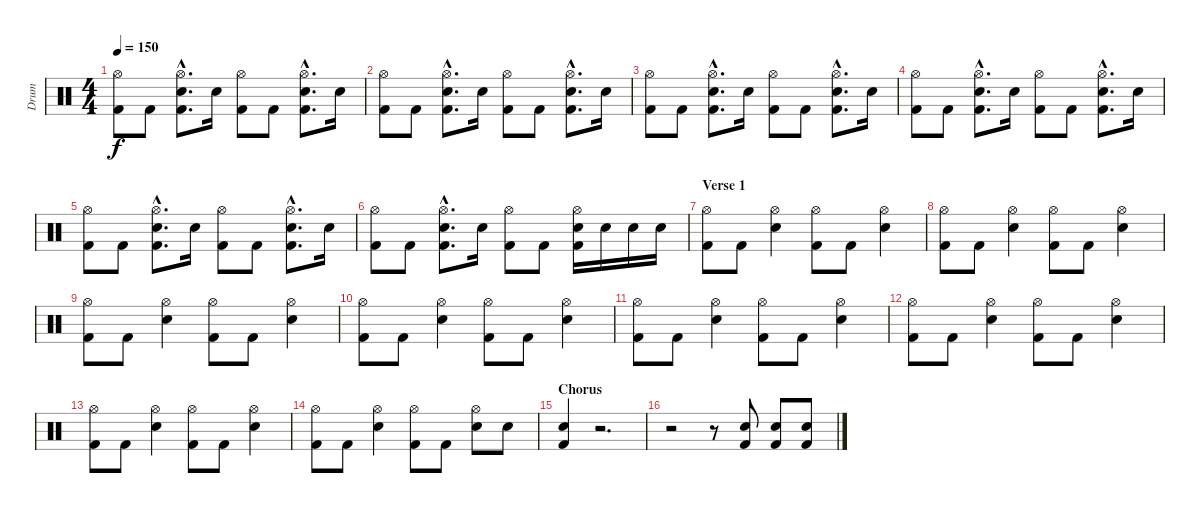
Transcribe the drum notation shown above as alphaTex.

\track ("Drum" "Drum") {instrument percussion}
\staff {score}
\articulation defaults
\ts (4 4)
\tempo 150
\clef neutral
\ks c
("Hi-Hat (open)" "Kick (hit) 2").8{dy f} "Kick (hit) 2".8 ("Hi-Hat (open)"{hac} "Snare (hit) 2"{hac} "Kick (hit) 2"{hac}).8{d} "Snare (hit) 2".16 ("Hi-Hat (open)" "Kick (hit) 2").8 "Kick (hit) 2".8 ("Hi-Hat (open)"{hac} "Snare (hit) 2"{hac} "Kick (hit) 2"{hac}).8{d} "Snare (hit) 2".16 |
("Hi-Hat (open)" "Kick (hit) 2").8 "Kick (hit) 2".8 ("Hi-Hat (open)"{hac} "Snare (hit) 2"{hac} "Kick (hit) 2"{hac}).8{d} "Snare (hit) 2".16 ("Hi-Hat (open)" "Kick (hit) 2").8 "Kick (hit) 2".8 ("Hi-Hat (open)"{hac} "Snare (hit) 2"{hac} "Kick (hit) 2"{hac}).8{d} "Snare (hit) 2".16 |
("Hi-Hat (open)" "Kick (hit) 2").8 "Kick (hit) 2".8 ("Hi-Hat (open)"{hac} "Snare (hit) 2"{hac} "Kick (hit) 2"{hac}).8{d} "Snare (hit) 2".16 ("Hi-Hat (open)" "Kick (hit) 2").8 "Kick (hit) 2".8 ("Hi-Hat (open)"{hac} "Snare (hit) 2"{hac} "Kick (hit) 2"{hac}).8{d} "Snare (hit) 2".16 |
("Hi-Hat (open)" "Kick (hit) 2").8 "Kick (hit) 2".8 ("Hi-Hat (open)"{hac} "Snare (hit) 2"{hac} "Kick (hit) 2"{hac}).8{d} "Snare (hit) 2".16 ("Hi-Hat (open)" "Kick (hit) 2").8 "Kick (hit) 2".8 ("Hi-Hat (open)"{hac} "Snare (hit) 2"{hac} "Kick (hit) 2"{hac}).8{d} "Snare (hit) 2".16 |
("Hi-Hat (open)" "Kick (hit) 2").8 "Kick (hit) 2".8 ("Hi-Hat (open)"{hac} "Snare (hit) 2"{hac} "Kick (hit) 2"{hac}).8{d} "Snare (hit) 2".16 ("Hi-Hat (open)" "Kick (hit) 2").8 "Kick (hit) 2".8 ("Hi-Hat (open)"{hac} "Snare (hit) 2"{hac} "Kick (hit) 2"{hac}).8{d} "Snare (hit) 2".16 |
("Hi-Hat (open)" "Kick (hit) 2").8 "Kick (hit) 2".8 ("Hi-Hat (open)"{hac} "Snare (hit) 2"{hac} "Kick (hit) 2"{hac}).8{d} "Snare (hit) 2".16 ("Hi-Hat (open)" "Kick (hit) 2").8 "Kick (hit) 2".8 ("Hi-Hat (open)" "Snare (hit) 2" "Kick (hit) 2").16 "Snare (hit) 2".16 "Snare (hit) 2".16 "Snare (hit) 2".16 |
\section ("" "Verse 1")
("Hi-Hat (open)" "Kick (hit) 2").8 "Kick (hit) 2".8 ("Hi-Hat (open)" "Snare (hit) 2").4 ("Hi-Hat (open)" "Kick (hit) 2").8 "Kick (hit) 2".8 ("Hi-Hat (open)" "Snare (hit) 2").4 |
("Hi-Hat (open)" "Kick (hit) 2").8 "Kick (hit) 2".8 ("Hi-Hat (open)" "Snare (hit) 2").4 ("Hi-Hat (open)" "Kick (hit) 2").8 "Kick (hit) 2".8 ("Hi-Hat (open)" "Snare (hit) 2").4 |
("Hi-Hat (open)" "Kick (hit) 2").8 "Kick (hit) 2".8 ("Hi-Hat (open)" "Snare (hit) 2").4 ("Hi-Hat (open)" "Kick (hit) 2").8 "Kick (hit) 2".8 ("Hi-Hat (open)" "Snare (hit) 2").4 |
("Hi-Hat (open)" "Kick (hit) 2").8 "Kick (hit) 2".8 ("Hi-Hat (open)" "Snare (hit) 2").4 ("Hi-Hat (open)" "Kick (hit) 2").8 "Kick (hit) 2".8 ("Hi-Hat (open)" "Snare (hit) 2").4 |
("Hi-Hat (open)" "Kick (hit) 2").8 "Kick (hit) 2".8 ("Hi-Hat (open)" "Snare (hit) 2").4 ("Hi-Hat (open)" "Kick (hit) 2").8 "Kick (hit) 2".8 ("Hi-Hat (open)" "Snare (hit) 2").4 |
("Hi-Hat (open)" "Kick (hit) 2").8 "Kick (hit) 2".8 ("Hi-Hat (open)" "Snare (hit) 2").4 ("Hi-Hat (open)" "Kick (hit) 2").8 "Kick (hit) 2".8 ("Hi-Hat (open)" "Snare (hit) 2").4 |
("Hi-Hat (open)" "Kick (hit) 2").8 "Kick (hit) 2".8 ("Hi-Hat (open)" "Snare (hit) 2").4 ("Hi-Hat (open)" "Kick (hit) 2").8 "Kick (hit) 2".8 ("Hi-Hat (open)" "Snare (hit) 2").4 |
("Hi-Hat (open)" "Kick (hit) 2").8 "Kick (hit) 2".8 ("Hi-Hat (open)" "Snare (hit) 2").4 ("Hi-Hat (open)" "Kick (hit) 2").8 "Kick (hit) 2".8 ("Hi-Hat (open)" "Snare (hit) 2").8 "Snare (hit) 2".8 |
\section ("" "Chorus")
("Snare (hit) 2" "Kick (hit) 2").4 r.2{d} |
r.2 r.8 ("Snare (hit) 2" "Kick (hit) 2").8 ("Snare (hit) 2" "Kick (hit) 2").8 ("Snare (hit) 2" "Kick (hit) 2").8
